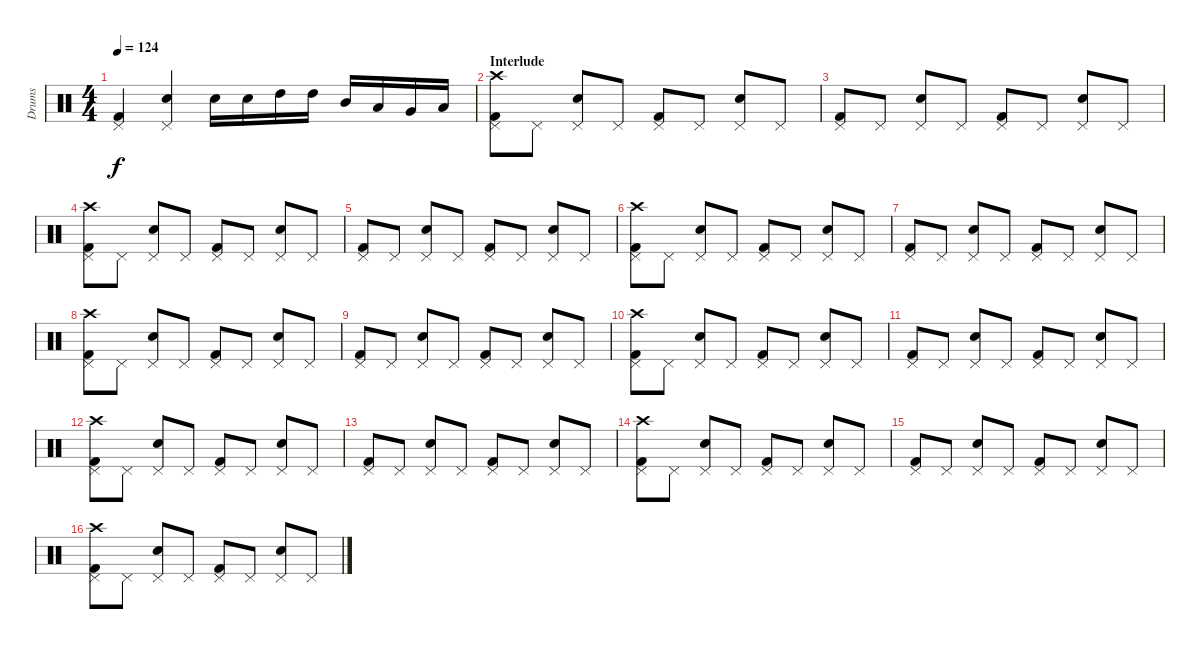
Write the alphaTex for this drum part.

\track ("Drums" "Drums") {instrument percussion}
\staff {score}
\articulation defaults
\ts (4 4)
\tempo 124
\clef neutral
\ks c
("Kick (hit) 2" "Pedal Hi-Hat (hit)").4{dy f} ("Snare (hit) 2" "Pedal Hi-Hat (hit)").4 "Snare (hit) 2".16 "Snare (hit) 2".16 "High Tom (hit)".16 "High Tom (hit)".16 "Mid Tom (hit)".16 "Low Tom (hit)".16 "Very Low Tom (hit)".16 "Low Floor Tom (hit)".16 |
\section ("" "Interlude")
("Kick (hit) 2" "Pedal Hi-Hat (hit)" "Crash high (hit)").8 "Pedal Hi-Hat (hit)".8 ("Snare (hit) 2" "Pedal Hi-Hat (hit)").8 "Pedal Hi-Hat (hit)".8 ("Kick (hit) 2" "Pedal Hi-Hat (hit)").8 "Pedal Hi-Hat (hit)".8 ("Snare (hit) 2" "Pedal Hi-Hat (hit)").8 "Pedal Hi-Hat (hit)".8 |
("Kick (hit) 2" "Pedal Hi-Hat (hit)").8 "Pedal Hi-Hat (hit)".8 ("Snare (hit) 2" "Pedal Hi-Hat (hit)").8 "Pedal Hi-Hat (hit)".8 ("Kick (hit) 2" "Pedal Hi-Hat (hit)").8 "Pedal Hi-Hat (hit)".8 ("Snare (hit) 2" "Pedal Hi-Hat (hit)").8 "Pedal Hi-Hat (hit)".8 |
("Kick (hit) 2" "Pedal Hi-Hat (hit)" "Crash high (hit)").8 "Pedal Hi-Hat (hit)".8 ("Snare (hit) 2" "Pedal Hi-Hat (hit)").8 "Pedal Hi-Hat (hit)".8 ("Kick (hit) 2" "Pedal Hi-Hat (hit)").8 "Pedal Hi-Hat (hit)".8 ("Snare (hit) 2" "Pedal Hi-Hat (hit)").8 "Pedal Hi-Hat (hit)".8 |
("Kick (hit) 2" "Pedal Hi-Hat (hit)").8 "Pedal Hi-Hat (hit)".8 ("Snare (hit) 2" "Pedal Hi-Hat (hit)").8 "Pedal Hi-Hat (hit)".8 ("Kick (hit) 2" "Pedal Hi-Hat (hit)").8 "Pedal Hi-Hat (hit)".8 ("Snare (hit) 2" "Pedal Hi-Hat (hit)").8 "Pedal Hi-Hat (hit)".8 |
("Kick (hit) 2" "Pedal Hi-Hat (hit)" "Crash high (hit)").8 "Pedal Hi-Hat (hit)".8 ("Snare (hit) 2" "Pedal Hi-Hat (hit)").8 "Pedal Hi-Hat (hit)".8 ("Kick (hit) 2" "Pedal Hi-Hat (hit)").8 "Pedal Hi-Hat (hit)".8 ("Snare (hit) 2" "Pedal Hi-Hat (hit)").8 "Pedal Hi-Hat (hit)".8 |
("Kick (hit) 2" "Pedal Hi-Hat (hit)").8 "Pedal Hi-Hat (hit)".8 ("Snare (hit) 2" "Pedal Hi-Hat (hit)").8 "Pedal Hi-Hat (hit)".8 ("Kick (hit) 2" "Pedal Hi-Hat (hit)").8 "Pedal Hi-Hat (hit)".8 ("Snare (hit) 2" "Pedal Hi-Hat (hit)").8 "Pedal Hi-Hat (hit)".8 |
("Kick (hit) 2" "Pedal Hi-Hat (hit)" "Crash high (hit)").8 "Pedal Hi-Hat (hit)".8 ("Snare (hit) 2" "Pedal Hi-Hat (hit)").8 "Pedal Hi-Hat (hit)".8 ("Kick (hit) 2" "Pedal Hi-Hat (hit)").8 "Pedal Hi-Hat (hit)".8 ("Snare (hit) 2" "Pedal Hi-Hat (hit)").8 "Pedal Hi-Hat (hit)".8 |
("Kick (hit) 2" "Pedal Hi-Hat (hit)").8 "Pedal Hi-Hat (hit)".8 ("Snare (hit) 2" "Pedal Hi-Hat (hit)").8 "Pedal Hi-Hat (hit)".8 ("Kick (hit) 2" "Pedal Hi-Hat (hit)").8 "Pedal Hi-Hat (hit)".8 ("Snare (hit) 2" "Pedal Hi-Hat (hit)").8 "Pedal Hi-Hat (hit)".8 |
("Kick (hit) 2" "Pedal Hi-Hat (hit)" "Crash high (hit)").8 "Pedal Hi-Hat (hit)".8 ("Snare (hit) 2" "Pedal Hi-Hat (hit)").8 "Pedal Hi-Hat (hit)".8 ("Kick (hit) 2" "Pedal Hi-Hat (hit)").8 "Pedal Hi-Hat (hit)".8 ("Snare (hit) 2" "Pedal Hi-Hat (hit)").8 "Pedal Hi-Hat (hit)".8 |
("Kick (hit) 2" "Pedal Hi-Hat (hit)").8 "Pedal Hi-Hat (hit)".8 ("Snare (hit) 2" "Pedal Hi-Hat (hit)").8 "Pedal Hi-Hat (hit)".8 ("Kick (hit) 2" "Pedal Hi-Hat (hit)").8 "Pedal Hi-Hat (hit)".8 ("Snare (hit) 2" "Pedal Hi-Hat (hit)").8 "Pedal Hi-Hat (hit)".8 |
("Kick (hit) 2" "Pedal Hi-Hat (hit)" "Crash high (hit)").8 "Pedal Hi-Hat (hit)".8 ("Snare (hit) 2" "Pedal Hi-Hat (hit)").8 "Pedal Hi-Hat (hit)".8 ("Kick (hit) 2" "Pedal Hi-Hat (hit)").8 "Pedal Hi-Hat (hit)".8 ("Snare (hit) 2" "Pedal Hi-Hat (hit)").8 "Pedal Hi-Hat (hit)".8 |
("Kick (hit) 2" "Pedal Hi-Hat (hit)").8 "Pedal Hi-Hat (hit)".8 ("Snare (hit) 2" "Pedal Hi-Hat (hit)").8 "Pedal Hi-Hat (hit)".8 ("Kick (hit) 2" "Pedal Hi-Hat (hit)").8 "Pedal Hi-Hat (hit)".8 ("Snare (hit) 2" "Pedal Hi-Hat (hit)").8 "Pedal Hi-Hat (hit)".8 |
("Kick (hit) 2" "Pedal Hi-Hat (hit)" "Crash high (hit)").8 "Pedal Hi-Hat (hit)".8 ("Snare (hit) 2" "Pedal Hi-Hat (hit)").8 "Pedal Hi-Hat (hit)".8 ("Kick (hit) 2" "Pedal Hi-Hat (hit)").8 "Pedal Hi-Hat (hit)".8 ("Snare (hit) 2" "Pedal Hi-Hat (hit)").8 "Pedal Hi-Hat (hit)".8 |
("Kick (hit) 2" "Pedal Hi-Hat (hit)").8 "Pedal Hi-Hat (hit)".8 ("Snare (hit) 2" "Pedal Hi-Hat (hit)").8 "Pedal Hi-Hat (hit)".8 ("Kick (hit) 2" "Pedal Hi-Hat (hit)").8 "Pedal Hi-Hat (hit)".8 ("Snare (hit) 2" "Pedal Hi-Hat (hit)").8 "Pedal Hi-Hat (hit)".8 |
("Kick (hit) 2" "Pedal Hi-Hat (hit)" "Crash high (hit)").8 "Pedal Hi-Hat (hit)".8 ("Snare (hit) 2" "Pedal Hi-Hat (hit)").8 "Pedal Hi-Hat (hit)".8 ("Kick (hit) 2" "Pedal Hi-Hat (hit)").8 "Pedal Hi-Hat (hit)".8 ("Snare (hit) 2" "Pedal Hi-Hat (hit)").8 "Pedal Hi-Hat (hit)".8
